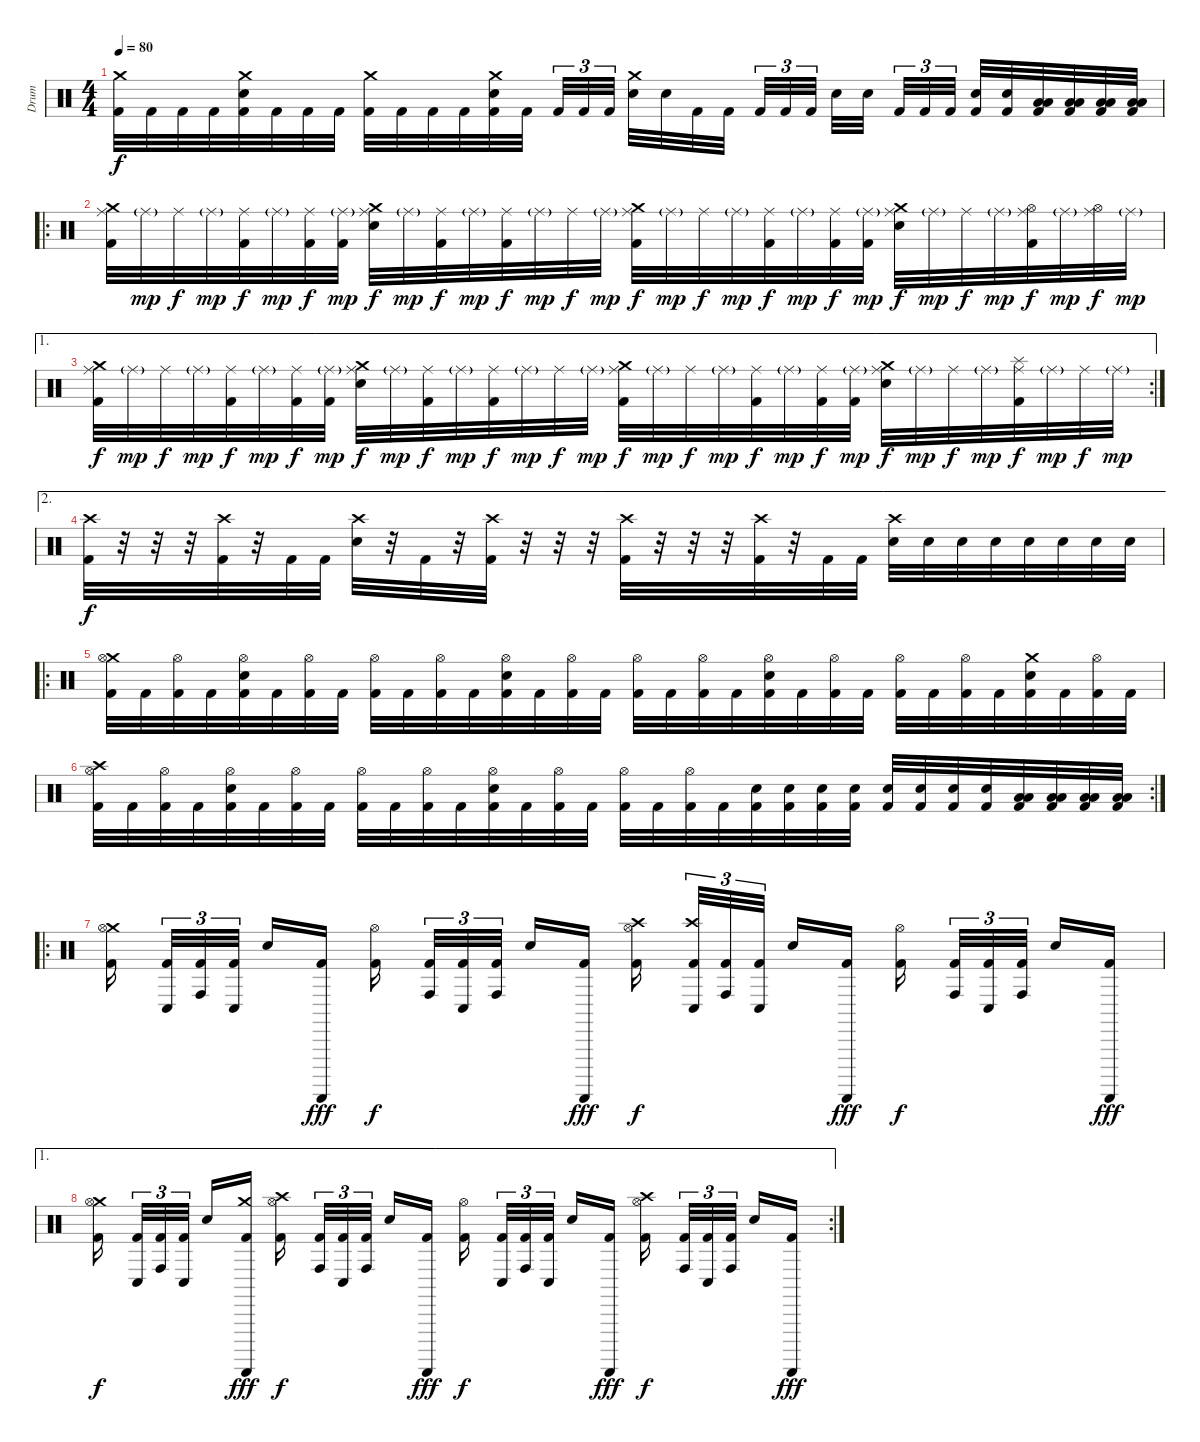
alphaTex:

\track ("Drum" "Drum") {instrument percussion}
\staff {score}
\articulation defaults
\ts (4 4)
\tempo 80
\clef neutral
\ks c
("Crash medium (hit)" "Kick (hit) 2").32{dy f} "Kick (hit) 2".32 "Kick (hit) 2".32 "Kick (hit) 2".32 ("Crash medium (hit)" "Electric Snare (hit)" "Kick (hit) 2").32 "Kick (hit) 2".32 "Kick (hit) 2".32 "Kick (hit) 2".32 ("Crash medium (hit)" "Kick (hit) 2").32 "Kick (hit) 2".32 "Kick (hit) 2".32 "Kick (hit) 2".32 ("Crash medium (hit)" "Electric Snare (hit)" "Kick (hit) 2").32 "Kick (hit) 2".32 "Kick (hit) 2".32{tu (3 2)} "Kick (hit) 2".32{tu (3 2)} "Kick (hit) 2".32{tu (3 2)} ("Crash medium (hit)" "Electric Snare (hit)").32 "Electric Snare (hit)".32 "Kick (hit) 2".32 "Kick (hit) 2".32 "Kick (hit) 2".32{tu (3 2)} "Kick (hit) 2".32{tu (3 2)} "Kick (hit) 2".32{tu (3 2)} "Electric Snare (hit)".32 "Electric Snare (hit)".32 "Kick (hit) 2".32{tu (3 2)} "Kick (hit) 2".32{tu (3 2)} "Kick (hit) 2".32{tu (3 2)} ("Electric Snare (hit)" "Kick (hit) 2").32 ("Electric Snare (hit)" "Kick (hit) 2").32 ("Low Tom (hit)" "Low Tom (hit)" "Kick (hit) 2").32 ("Low Tom (hit)" "Low Tom (hit)" "Kick (hit) 2").32 ("Low Tom (hit)" "Low Tom (hit)" "Kick (hit) 2").32 ("Low Tom (hit)" "Low Tom (hit)" "Kick (hit) 2").32 |
\ro
\section ("" "")
("Crash medium (hit)" "Ride (middle)" "Kick (hit) 2").32 "Ride (middle)"{g}.32{dy mp} "Ride (middle)".32{dy f} "Ride (middle)"{g}.32{dy mp} ("Ride (middle)" "Kick (hit) 2").32{dy f} "Ride (middle)"{g}.32{dy mp} ("Ride (middle)" "Kick (hit) 2").32{dy f} ("Ride (middle)"{g} "Kick (hit) 2").32{dy mp} ("Crash medium (hit)" "Ride (middle)" "Electric Snare (hit)").32{dy f} "Ride (middle)"{g}.32{dy mp} ("Ride (middle)" "Kick (hit) 2").32{dy f} "Ride (middle)"{g}.32{dy mp} ("Ride (middle)" "Kick (hit) 2").32{dy f} "Ride (middle)"{g}.32{dy mp} "Ride (middle)".32{dy f} "Ride (middle)"{g}.32{dy mp} ("Crash medium (hit)" "Ride (middle)" "Kick (hit) 2").32{dy f} "Ride (middle)"{g}.32{dy mp} "Ride (middle)".32{dy f} "Ride (middle)"{g}.32{dy mp} ("Ride (middle)" "Kick (hit) 2").32{dy f} "Ride (middle)"{g}.32{dy mp} ("Ride (middle)" "Kick (hit) 2").32{dy f} ("Ride (middle)"{g} "Kick (hit) 2").32{dy mp} ("Crash medium (hit)" "Ride (middle)" "Electric Snare (hit)").32{dy f} "Ride (middle)"{g}.32{dy mp} "Ride (middle)".32{dy f} "Ride (middle)"{g}.32{dy mp} ("Hi-Hat (open)" "Ride (middle)" "Kick (hit) 2").32{dy f} "Ride (middle)"{g}.32{dy mp} ("Hi-Hat (open)" "Ride (middle)").32{dy f} "Ride (middle)"{g}.32{dy mp} |
\ae 1
\rc 2
("Crash medium (hit)" "Ride (middle)" "Kick (hit) 2").32{dy f} "Ride (middle)"{g}.32{dy mp} "Ride (middle)".32{dy f} "Ride (middle)"{g}.32{dy mp} ("Ride (middle)" "Kick (hit) 2").32{dy f} "Ride (middle)"{g}.32{dy mp} ("Ride (middle)" "Kick (hit) 2").32{dy f} ("Ride (middle)"{g} "Kick (hit) 2").32{dy mp} ("Crash medium (hit)" "Ride (middle)" "Electric Snare (hit)").32{dy f} "Ride (middle)"{g}.32{dy mp} ("Ride (middle)" "Kick (hit) 2").32{dy f} "Ride (middle)"{g}.32{dy mp} ("Ride (middle)" "Kick (hit) 2").32{dy f} "Ride (middle)"{g}.32{dy mp} "Ride (middle)".32{dy f} "Ride (middle)"{g}.32{dy mp} ("Crash medium (hit)" "Ride (middle)" "Kick (hit) 2").32{dy f} "Ride (middle)"{g}.32{dy mp} "Ride (middle)".32{dy f} "Ride (middle)"{g}.32{dy mp} ("Ride (middle)" "Kick (hit) 2").32{dy f} "Ride (middle)"{g}.32{dy mp} ("Ride (middle)" "Kick (hit) 2").32{dy f} ("Ride (middle)"{g} "Kick (hit) 2").32{dy mp} ("Crash medium (hit)" "Ride (middle)" "Electric Snare (hit)").32{dy f} "Ride (middle)"{g}.32{dy mp} "Ride (middle)".32{dy f} "Ride (middle)"{g}.32{dy mp} ("Splash (hit)" "Ride (middle)" "Kick (hit) 2").32{dy f} "Ride (middle)"{g}.32{dy mp} "Ride (middle)".32{dy f} "Ride (middle)"{g}.32{dy mp} |
\ae 2
("Crash high (hit)" "Kick (hit) 2").32{dy f} r.32 r.32 r.32 ("Crash high (hit)" "Kick (hit) 2").32 r.32 "Kick (hit) 2".32 "Kick (hit) 2".32 ("Crash high (hit)" "Electric Snare (hit)").32 r.32 "Kick (hit) 2".32 r.32 ("Crash high (hit)" "Kick (hit) 2").32 r.32 r.32 r.32 ("Crash high (hit)" "Kick (hit) 2").32 r.32 r.32 r.32 ("Crash high (hit)" "Kick (hit) 2").32 r.32 "Kick (hit) 2".32 "Kick (hit) 2".32 ("Crash high (hit)" "Electric Snare (hit)").32 "Electric Snare (hit)".32 "Electric Snare (hit)".32 "Electric Snare (hit)".32 "Electric Snare (hit)".32 "Electric Snare (hit)".32 "Electric Snare (hit)".32 "Electric Snare (hit)".32 |
\ro
\section ("" "")
("Crash medium (hit)" "Hi-Hat (open)" "Kick (hit) 2").32 "Kick (hit) 2".32 ("Hi-Hat (open)" "Kick (hit) 2").32 "Kick (hit) 2".32 ("Hi-Hat (open)" "Electric Snare (hit)" "Kick (hit) 2").32 "Kick (hit) 2".32 ("Hi-Hat (open)" "Kick (hit) 2").32 "Kick (hit) 2".32 ("Hi-Hat (open)" "Kick (hit) 2").32 "Kick (hit) 2".32 ("Hi-Hat (open)" "Kick (hit) 2").32 "Kick (hit) 2".32 ("Hi-Hat (open)" "Electric Snare (hit)" "Kick (hit) 2").32 "Kick (hit) 2".32 ("Hi-Hat (open)" "Kick (hit) 2").32 "Kick (hit) 2".32 ("Hi-Hat (open)" "Kick (hit) 2").32 "Kick (hit) 2".32 ("Hi-Hat (open)" "Kick (hit) 2").32 "Kick (hit) 2".32 ("Hi-Hat (open)" "Electric Snare (hit)" "Kick (hit) 2").32 "Kick (hit) 2".32 ("Hi-Hat (open)" "Kick (hit) 2").32 "Kick (hit) 2".32 ("Hi-Hat (open)" "Kick (hit) 2").32 "Kick (hit) 2".32 ("Hi-Hat (open)" "Kick (hit) 2").32 "Kick (hit) 2".32 ("Crash medium (hit)" "Electric Snare (hit)" "Kick (hit) 2").32 "Kick (hit) 2".32 ("Hi-Hat (open)" "Kick (hit) 2").32 "Kick (hit) 2".32 |
\rc 2
("Crash high (hit)" "Hi-Hat (open)" "Kick (hit) 2").32 "Kick (hit) 2".32 ("Hi-Hat (open)" "Kick (hit) 2").32 "Kick (hit) 2".32 ("Hi-Hat (open)" "Electric Snare (hit)" "Kick (hit) 2").32 "Kick (hit) 2".32 ("Hi-Hat (open)" "Kick (hit) 2").32 "Kick (hit) 2".32 ("Hi-Hat (open)" "Kick (hit) 2").32 "Kick (hit) 2".32 ("Hi-Hat (open)" "Kick (hit) 2").32 "Kick (hit) 2".32 ("Hi-Hat (open)" "Electric Snare (hit)" "Kick (hit) 2").32 "Kick (hit) 2".32 ("Hi-Hat (open)" "Kick (hit) 2").32 "Kick (hit) 2".32 ("Hi-Hat (open)" "Kick (hit) 2").32 "Kick (hit) 2".32 ("Hi-Hat (open)" "Kick (hit) 2").32 "Kick (hit) 2".32 ("Electric Snare (hit)" "Kick (hit) 2").32 ("Electric Snare (hit)" "Kick (hit) 2").32 ("Electric Snare (hit)" "Kick (hit) 2").32 ("Electric Snare (hit)" "Kick (hit) 2").32 ("Electric Snare (hit)" "Kick (hit) 2").32 ("Electric Snare (hit)" "Kick (hit) 2").32 ("Electric Snare (hit)" "Kick (hit) 2").32 ("Electric Snare (hit)" "Kick (hit) 2").32 ("Low Tom (hit)" "Low Tom (hit)" "Kick (hit) 2").32 ("Low Tom (hit)" "Low Tom (hit)" "Kick (hit) 2").32 ("Low Tom (hit)" "Low Tom (hit)" "Kick (hit) 2").32 ("Low Tom (hit)" "Low Tom (hit)" "Kick (hit) 2").32 |
\ro
("Crash medium (hit)" "Hi-Hat (open)" "Kick (hit) 2").16 ("Conga low (hit)" "Kick (hit) 2").32{tu (3 2)} ("Conga high (hit)" "Kick (hit) 2").32{tu (3 2)} ("Conga low (hit)" "Kick (hit) 2").32{tu (3 2)} "Electric Snare (hit)".16 ("Guiro (scrap-return)" "Kick (hit) 2").16{dy fff} ("Hi-Hat (open)" "Kick (hit) 2").16{dy f} ("Conga high (hit)" "Kick (hit) 2").32{tu (3 2)} ("Conga low (hit)" "Kick (hit) 2").32{tu (3 2)} ("Conga high (hit)" "Kick (hit) 2").32{tu (3 2)} "Electric Snare (hit)".16 ("Guiro (scrap-return)" "Kick (hit) 2").16{dy fff} ("Crash high (hit)" "Hi-Hat (open)" "Kick (hit) 2").16{dy f} ("Crash high (hit)" "Conga low (hit)" "Kick (hit) 2").32{tu (3 2)} ("Conga high (hit)" "Kick (hit) 2").32{tu (3 2)} ("Conga low (hit)" "Kick (hit) 2").32{tu (3 2)} "Electric Snare (hit)".16 ("Guiro (scrap-return)" "Kick (hit) 2").16{dy fff} ("Hi-Hat (open)" "Kick (hit) 2").16{dy f} ("Conga high (hit)" "Kick (hit) 2").32{tu (3 2)} ("Conga low (hit)" "Kick (hit) 2").32{tu (3 2)} ("Conga high (hit)" "Kick (hit) 2").32{tu (3 2)} "Electric Snare (hit)".16 ("Guiro (scrap-return)" "Kick (hit) 2").16{dy fff} |
\ae 1
\rc 2
("Crash medium (hit)" "Hi-Hat (open)" "Kick (hit) 2").16{dy f} ("Conga low (hit)" "Kick (hit) 2").32{tu (3 2)} ("Conga high (hit)" "Kick (hit) 2").32{tu (3 2)} ("Conga low (hit)" "Kick (hit) 2").32{tu (3 2)} "Electric Snare (hit)".16 ("Guiro (scrap-return)" "Crash medium (hit)" "Kick (hit) 2").16{dy fff} ("Crash high (hit)" "Hi-Hat (open)" "Kick (hit) 2").16{dy f} ("Conga high (hit)" "Kick (hit) 2").32{tu (3 2)} ("Conga low (hit)" "Kick (hit) 2").32{tu (3 2)} ("Conga high (hit)" "Kick (hit) 2").32{tu (3 2)} "Electric Snare (hit)".16 ("Guiro (scrap-return)" "Kick (hit) 2").16{dy fff} ("Hi-Hat (open)" "Kick (hit) 2").16{dy f} ("Conga low (hit)" "Kick (hit) 2").32{tu (3 2)} ("Conga high (hit)" "Kick (hit) 2").32{tu (3 2)} ("Conga low (hit)" "Kick (hit) 2").32{tu (3 2)} "Electric Snare (hit)".16 ("Guiro (scrap-return)" "Kick (hit) 2").16{dy fff} ("Crash high (hit)" "Hi-Hat (open)" "Kick (hit) 2").16{dy f} ("Conga high (hit)" "Kick (hit) 2").32{tu (3 2)} ("Conga low (hit)" "Kick (hit) 2").32{tu (3 2)} ("Conga high (hit)" "Kick (hit) 2").32{tu (3 2)} "Electric Snare (hit)".16 ("Guiro (scrap-return)" "Kick (hit) 2").16{dy fff}
